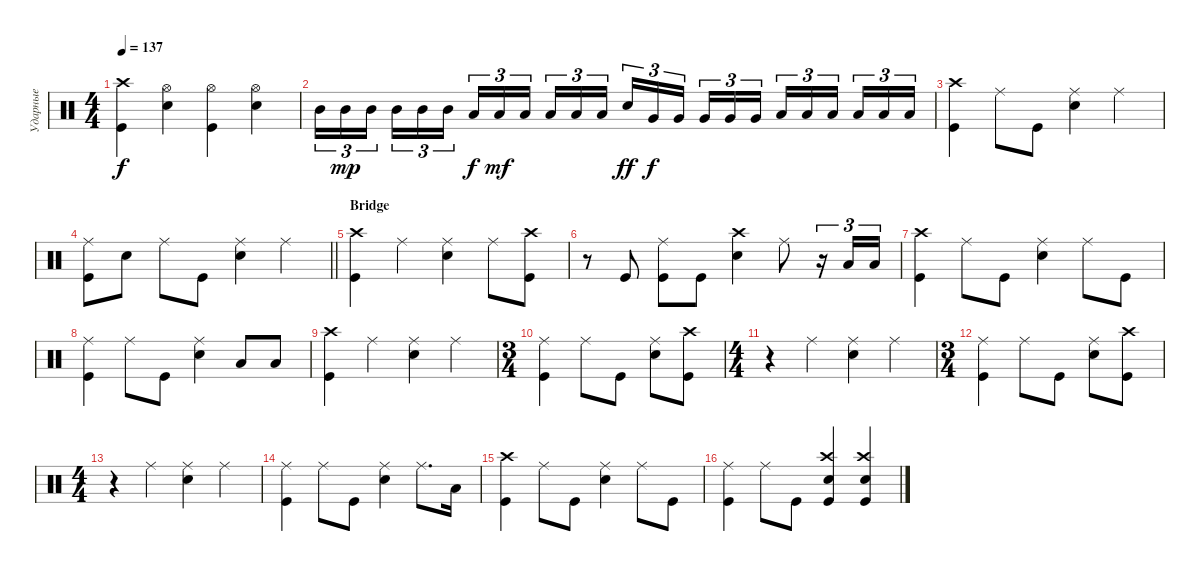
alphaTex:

\track ("Ударные" "Ударные") {instrument percussion}
\staff {score}
\articulation defaults
\ts (4 4)
\tempo 137
\clef neutral
\ks aminor
("Kick (hit)" "Crash high (hit)").4{dy f} ("Snare (hit) 2" "Hi-Hat (open)").4 ("Kick (hit)" "Hi-Hat (open)").4 ("Snare (hit) 2" "Hi-Hat (open)").4 |
"Mid Tom (hit)".16{tu (3 2)} "Mid Tom (hit)".16{tu (3 2) dy mp} "Mid Tom (hit)".16{tu (3 2) beam splitsecondary} "Mid Tom (hit)".16{tu (3 2)} "Mid Tom (hit)".16{tu (3 2)} "Mid Tom (hit)".16{tu (3 2)} "Low Tom (hit)".16{tu (3 2) dy f} "Low Tom (hit)".16{tu (3 2) dy mf} "Low Tom (hit)".16{tu (3 2) beam splitsecondary} "Low Tom (hit)".16{tu (3 2)} "Low Tom (hit)".16{tu (3 2)} "Low Tom (hit)".16{tu (3 2)} "Snare (hit) 2".16{tu (3 2) dy ff} "Very Low Tom (hit)".16{tu (3 2) dy f} "Very Low Tom (hit)".16{tu (3 2) beam splitsecondary} "Very Low Tom (hit)".16{tu (3 2)} "Very Low Tom (hit)".16{tu (3 2)} "Very Low Tom (hit)".16{tu (3 2)} "Low Floor Tom (hit)".16{tu (3 2)} "Low Floor Tom (hit)".16{tu (3 2)} "Low Floor Tom (hit)".16{tu (3 2) beam splitsecondary} "Low Floor Tom (hit)".16{tu (3 2)} "Low Floor Tom (hit)".16{tu (3 2)} "Low Floor Tom (hit)".16{tu (3 2)} |
("Kick (hit)" "Crash high (hit)").4 "Ride (middle)".8 "Kick (hit)".8 ("Snare (hit) 2" "Ride (middle)").4 "Ride (middle)".4 |
\barLineRight lightlight
("Kick (hit)" "Ride (middle)").8 "Snare (hit) 2".8 "Ride (middle)".8 "Kick (hit)".8 ("Snare (hit) 2" "Ride (middle)").4 "Ride (middle)".4 |
\section ("" "Bridge")
("Kick (hit)" "Crash high (hit)").4 "Ride (middle)".4 ("Snare (hit) 2" "Ride (middle)").4 "Ride (middle)".8 ("Kick (hit)" "Crash high (hit)").8 |
r.8 "Kick (hit)".8 ("Kick (hit)" "Ride (middle)").8 "Kick (hit)".8 ("Snare (hit) 2" "Crash high (hit)").4 "Ride (middle)".8 r.16{tu (3 2)} "Low Tom (hit)".16{tu (3 2)} "Low Tom (hit)".16{tu (3 2)} |
("Kick (hit)" "Crash high (hit)").4 "Ride (middle)".8 "Kick (hit)".8 ("Snare (hit) 2" "Ride (middle)").4 "Ride (middle)".8 "Kick (hit)".8 |
("Kick (hit)" "Ride (middle)").4 "Ride (middle)".8 "Kick (hit)".8 ("Ride (middle)" "Snare (hit) 2").4 "Low Tom (hit)".8 "Low Tom (hit)".8 |
("Kick (hit)" "Crash high (hit)").4 "Ride (middle)".4 ("Ride (middle)" "Snare (hit) 2").4 "Ride (middle)".4 |
\ts (3 4)
("Kick (hit)" "Ride (middle)").4 "Ride (middle)".8 "Kick (hit)".8 ("Snare (hit) 2" "Ride (middle)").8 ("Kick (hit)" "Crash high (hit)").8 |
\ts (4 4)
r.4 "Ride (middle)".4 ("Ride (middle)" "Snare (hit) 2").4 "Ride (middle)".4 |
\ts (3 4)
("Kick (hit)" "Ride (middle)").4 "Ride (middle)".8 "Kick (hit)".8 ("Snare (hit) 2" "Ride (middle)").8 ("Kick (hit)" "Crash high (hit)").8 |
\ts (4 4)
r.4 "Ride (middle)".4 ("Ride (middle)" "Snare (hit) 2").4 "Ride (middle)".4 |
("Kick (hit)" "Ride (middle)").4 "Ride (middle)".8 "Kick (hit)".8 ("Snare (hit) 2" "Ride (middle)").4 "Ride (middle)".8{d} "Low Tom (hit)".16 |
("Kick (hit)" "Crash high (hit)").4 "Ride (middle)".8 "Kick (hit)".8 ("Snare (hit) 2" "Ride (middle)").4 "Ride (middle)".8 "Kick (hit)".8 |
("Kick (hit)" "Ride (middle)").4 "Ride (middle)".8 "Kick (hit)".8 ("Snare (hit) 2" "Crash high (hit)" "Kick (hit)").4 ("Kick (hit)" "Snare (hit) 2" "Crash high (hit)").4
